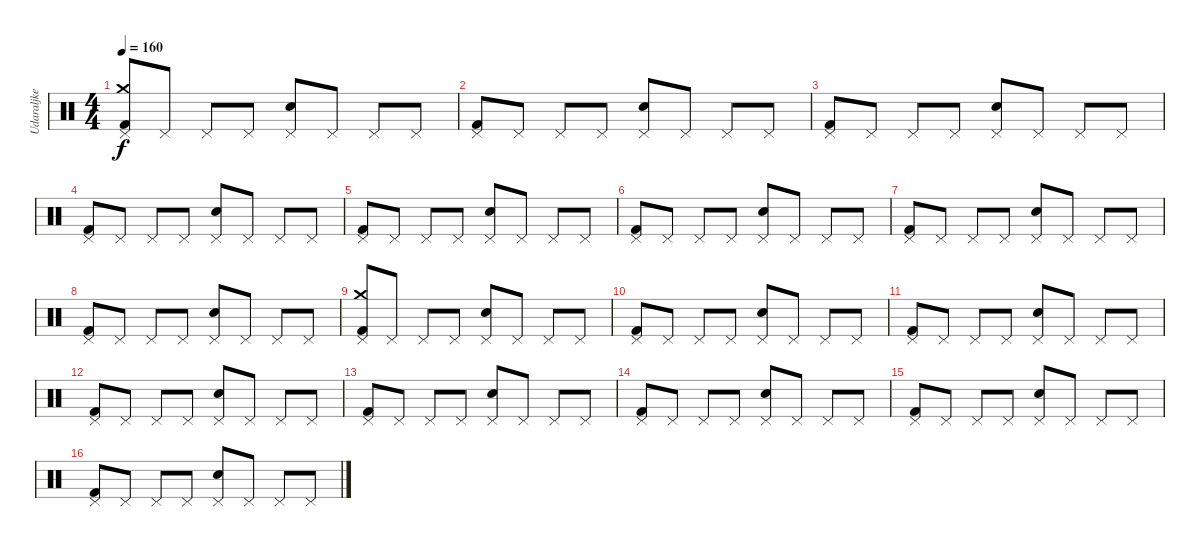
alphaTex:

\track ("Udaraljke" "Udaraljke") {instrument percussion}
\staff {score}
\articulation defaults
\ts (4 4)
\tempo 160
\clef neutral
\ks c
("Pedal Hi-Hat (hit)" "Crash medium (hit)" "Kick (hit) 2").8{dy f} "Pedal Hi-Hat (hit)".8 "Pedal Hi-Hat (hit)".8 "Pedal Hi-Hat (hit)".8 ("Pedal Hi-Hat (hit)" "Snare (hit) 2").8 "Pedal Hi-Hat (hit)".8 "Pedal Hi-Hat (hit)".8 "Pedal Hi-Hat (hit)".8 |
("Pedal Hi-Hat (hit)" "Kick (hit) 2").8 "Pedal Hi-Hat (hit)".8 "Pedal Hi-Hat (hit)".8 "Pedal Hi-Hat (hit)".8 ("Pedal Hi-Hat (hit)" "Snare (hit) 2").8 "Pedal Hi-Hat (hit)".8 "Pedal Hi-Hat (hit)".8 "Pedal Hi-Hat (hit)".8 |
("Pedal Hi-Hat (hit)" "Kick (hit) 2").8 "Pedal Hi-Hat (hit)".8 "Pedal Hi-Hat (hit)".8 "Pedal Hi-Hat (hit)".8 ("Pedal Hi-Hat (hit)" "Snare (hit) 2").8 "Pedal Hi-Hat (hit)".8 "Pedal Hi-Hat (hit)".8 "Pedal Hi-Hat (hit)".8 |
("Pedal Hi-Hat (hit)" "Kick (hit) 2").8 "Pedal Hi-Hat (hit)".8 "Pedal Hi-Hat (hit)".8 "Pedal Hi-Hat (hit)".8 ("Pedal Hi-Hat (hit)" "Snare (hit) 2").8 "Pedal Hi-Hat (hit)".8 "Pedal Hi-Hat (hit)".8 "Pedal Hi-Hat (hit)".8 |
("Pedal Hi-Hat (hit)" "Kick (hit) 2").8 "Pedal Hi-Hat (hit)".8 "Pedal Hi-Hat (hit)".8 "Pedal Hi-Hat (hit)".8 ("Pedal Hi-Hat (hit)" "Snare (hit) 2").8 "Pedal Hi-Hat (hit)".8 "Pedal Hi-Hat (hit)".8 "Pedal Hi-Hat (hit)".8 |
("Pedal Hi-Hat (hit)" "Kick (hit) 2").8 "Pedal Hi-Hat (hit)".8 "Pedal Hi-Hat (hit)".8 "Pedal Hi-Hat (hit)".8 ("Pedal Hi-Hat (hit)" "Snare (hit) 2").8 "Pedal Hi-Hat (hit)".8 "Pedal Hi-Hat (hit)".8 "Pedal Hi-Hat (hit)".8 |
("Pedal Hi-Hat (hit)" "Kick (hit) 2").8 "Pedal Hi-Hat (hit)".8 "Pedal Hi-Hat (hit)".8 "Pedal Hi-Hat (hit)".8 ("Pedal Hi-Hat (hit)" "Snare (hit) 2").8 "Pedal Hi-Hat (hit)".8 "Pedal Hi-Hat (hit)".8 "Pedal Hi-Hat (hit)".8 |
("Pedal Hi-Hat (hit)" "Kick (hit) 2").8 "Pedal Hi-Hat (hit)".8 "Pedal Hi-Hat (hit)".8 "Pedal Hi-Hat (hit)".8 ("Pedal Hi-Hat (hit)" "Snare (hit) 2").8 "Pedal Hi-Hat (hit)".8 "Pedal Hi-Hat (hit)".8 "Pedal Hi-Hat (hit)".8 |
("Pedal Hi-Hat (hit)" "Crash medium (hit)" "Kick (hit) 2").8 "Pedal Hi-Hat (hit)".8 "Pedal Hi-Hat (hit)".8 "Pedal Hi-Hat (hit)".8 ("Pedal Hi-Hat (hit)" "Snare (hit) 2").8 "Pedal Hi-Hat (hit)".8 "Pedal Hi-Hat (hit)".8 "Pedal Hi-Hat (hit)".8 |
("Pedal Hi-Hat (hit)" "Kick (hit) 2").8 "Pedal Hi-Hat (hit)".8 "Pedal Hi-Hat (hit)".8 "Pedal Hi-Hat (hit)".8 ("Pedal Hi-Hat (hit)" "Snare (hit) 2").8 "Pedal Hi-Hat (hit)".8 "Pedal Hi-Hat (hit)".8 "Pedal Hi-Hat (hit)".8 |
("Pedal Hi-Hat (hit)" "Kick (hit) 2").8 "Pedal Hi-Hat (hit)".8 "Pedal Hi-Hat (hit)".8 "Pedal Hi-Hat (hit)".8 ("Pedal Hi-Hat (hit)" "Snare (hit) 2").8 "Pedal Hi-Hat (hit)".8 "Pedal Hi-Hat (hit)".8 "Pedal Hi-Hat (hit)".8 |
("Pedal Hi-Hat (hit)" "Kick (hit) 2").8 "Pedal Hi-Hat (hit)".8 "Pedal Hi-Hat (hit)".8 "Pedal Hi-Hat (hit)".8 ("Pedal Hi-Hat (hit)" "Snare (hit) 2").8 "Pedal Hi-Hat (hit)".8 "Pedal Hi-Hat (hit)".8 "Pedal Hi-Hat (hit)".8 |
("Pedal Hi-Hat (hit)" "Kick (hit) 2").8 "Pedal Hi-Hat (hit)".8 "Pedal Hi-Hat (hit)".8 "Pedal Hi-Hat (hit)".8 ("Pedal Hi-Hat (hit)" "Snare (hit) 2").8 "Pedal Hi-Hat (hit)".8 "Pedal Hi-Hat (hit)".8 "Pedal Hi-Hat (hit)".8 |
("Pedal Hi-Hat (hit)" "Kick (hit) 2").8 "Pedal Hi-Hat (hit)".8 "Pedal Hi-Hat (hit)".8 "Pedal Hi-Hat (hit)".8 ("Pedal Hi-Hat (hit)" "Snare (hit) 2").8 "Pedal Hi-Hat (hit)".8 "Pedal Hi-Hat (hit)".8 "Pedal Hi-Hat (hit)".8 |
("Pedal Hi-Hat (hit)" "Kick (hit) 2").8 "Pedal Hi-Hat (hit)".8 "Pedal Hi-Hat (hit)".8 "Pedal Hi-Hat (hit)".8 ("Pedal Hi-Hat (hit)" "Snare (hit) 2").8 "Pedal Hi-Hat (hit)".8 "Pedal Hi-Hat (hit)".8 "Pedal Hi-Hat (hit)".8 |
("Pedal Hi-Hat (hit)" "Kick (hit) 2").8 "Pedal Hi-Hat (hit)".8 "Pedal Hi-Hat (hit)".8 "Pedal Hi-Hat (hit)".8 ("Pedal Hi-Hat (hit)" "Snare (hit) 2").8 "Pedal Hi-Hat (hit)".8 "Pedal Hi-Hat (hit)".8 "Pedal Hi-Hat (hit)".8
